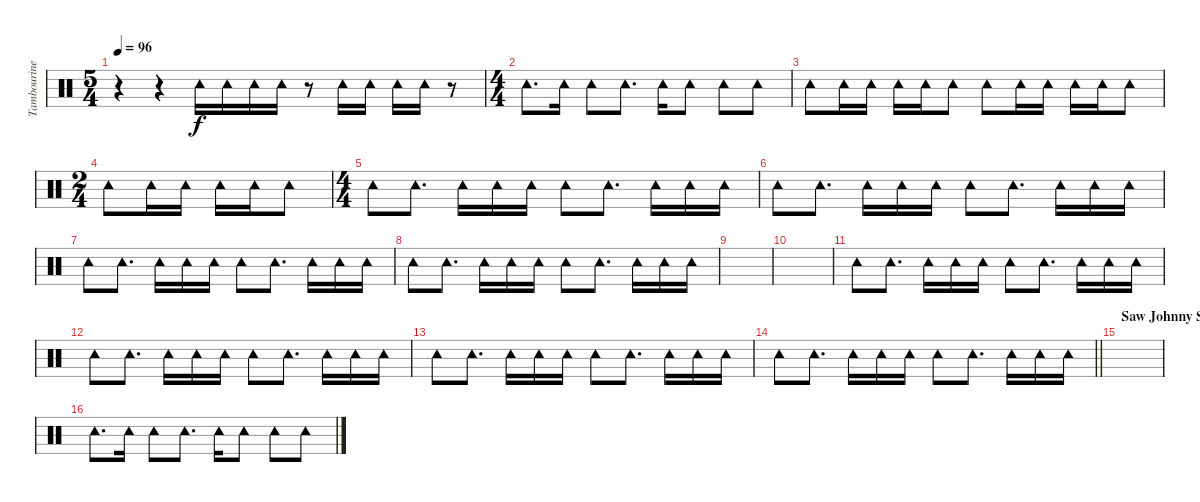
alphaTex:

\track ("Tambourine" "Tambourine") {instrument percussion}
\staff {score}
\articulation defaults
\ts (5 4)
\tempo 96
\clef neutral
\ks c
r.4{dy f} r.4 "Tambourine (hit)".16 "Tambourine (hit)".16 "Tambourine (hit)".16 "Tambourine (hit)".16 r.8 "Tambourine (hit)".16 "Tambourine (hit)".16 "Tambourine (hit)".16 "Tambourine (hit)".16 r.8 |
\ts (4 4)
"Tambourine (hit)".8{d} "Tambourine (hit)".16 "Tambourine (hit)".8 "Tambourine (hit)".8{d} "Tambourine (hit)".16 "Tambourine (hit)".8 "Tambourine (hit)".8 "Tambourine (hit)".8 |
"Tambourine (hit)".8 "Tambourine (hit)".16 "Tambourine (hit)".16 "Tambourine (hit)".16 "Tambourine (hit)".16 "Tambourine (hit)".8 "Tambourine (hit)".8 "Tambourine (hit)".16 "Tambourine (hit)".16 "Tambourine (hit)".16 "Tambourine (hit)".16 "Tambourine (hit)".8 |
\ts (2 4)
"Tambourine (hit)".8 "Tambourine (hit)".16 "Tambourine (hit)".16 "Tambourine (hit)".16 "Tambourine (hit)".16 "Tambourine (hit)".8 |
\ts (4 4)
"Tambourine (hit)".8 "Tambourine (hit)".8{d} "Tambourine (hit)".16 "Tambourine (hit)".16 "Tambourine (hit)".16 "Tambourine (hit)".8 "Tambourine (hit)".8{d} "Tambourine (hit)".16 "Tambourine (hit)".16 "Tambourine (hit)".16 |
"Tambourine (hit)".8 "Tambourine (hit)".8{d} "Tambourine (hit)".16 "Tambourine (hit)".16 "Tambourine (hit)".16 "Tambourine (hit)".8 "Tambourine (hit)".8{d} "Tambourine (hit)".16 "Tambourine (hit)".16 "Tambourine (hit)".16 |
"Tambourine (hit)".8 "Tambourine (hit)".8{d} "Tambourine (hit)".16 "Tambourine (hit)".16 "Tambourine (hit)".16 "Tambourine (hit)".8 "Tambourine (hit)".8{d} "Tambourine (hit)".16 "Tambourine (hit)".16 "Tambourine (hit)".16 |
"Tambourine (hit)".8 "Tambourine (hit)".8{d} "Tambourine (hit)".16 "Tambourine (hit)".16 "Tambourine (hit)".16 "Tambourine (hit)".8 "Tambourine (hit)".8{d} "Tambourine (hit)".16 "Tambourine (hit)".16 "Tambourine (hit)".16 |
|
|
"Tambourine (hit)".8 "Tambourine (hit)".8{d} "Tambourine (hit)".16 "Tambourine (hit)".16 "Tambourine (hit)".16 "Tambourine (hit)".8 "Tambourine (hit)".8{d} "Tambourine (hit)".16 "Tambourine (hit)".16 "Tambourine (hit)".16 |
"Tambourine (hit)".8 "Tambourine (hit)".8{d} "Tambourine (hit)".16 "Tambourine (hit)".16 "Tambourine (hit)".16 "Tambourine (hit)".8 "Tambourine (hit)".8{d} "Tambourine (hit)".16 "Tambourine (hit)".16 "Tambourine (hit)".16 |
"Tambourine (hit)".8 "Tambourine (hit)".8{d} "Tambourine (hit)".16 "Tambourine (hit)".16 "Tambourine (hit)".16 "Tambourine (hit)".8 "Tambourine (hit)".8{d} "Tambourine (hit)".16 "Tambourine (hit)".16 "Tambourine (hit)".16 |
\barLineRight lightlight "Tambourine (hit)".8 "Tambourine (hit)".8{d} "Tambourine (hit)".16 "Tambourine (hit)".16 "Tambourine (hit)".16 "Tambourine (hit)".8 "Tambourine (hit)".8{d} "Tambourine (hit)".16 "Tambourine (hit)".16 "Tambourine (hit)".16
|
\section ("" "Saw Johnny Scarecrow...")
|
"Tambourine (hit)".8{d} "Tambourine (hit)".16 "Tambourine (hit)".8 "Tambourine (hit)".8{d} "Tambourine (hit)".16 "Tambourine (hit)".8 "Tambourine (hit)".8 "Tambourine (hit)".8
